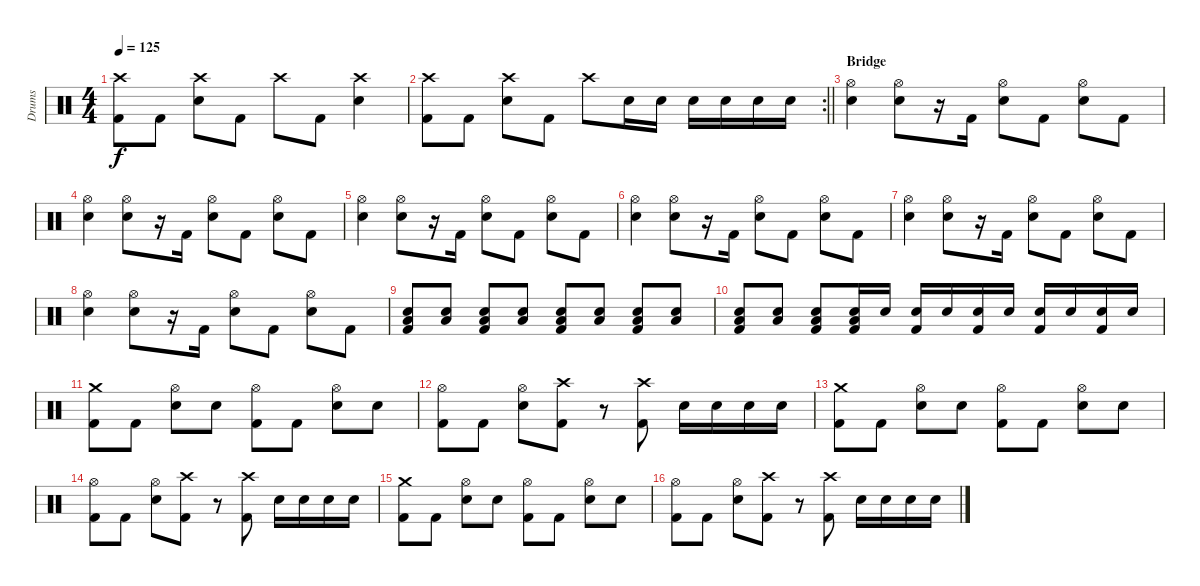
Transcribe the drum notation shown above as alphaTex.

\track ("Drums" "Drums") {instrument percussion}
\staff {score}
\articulation defaults
\ts (4 4)
\tempo 125
\clef neutral
\ks c
("Crash high (hit)" "Kick (hit) 2").8{dy f} "Kick (hit) 2".8 ("Crash high (hit)" "Electric Snare (hit)").8 "Kick (hit) 2".8 "Crash high (hit)".8 "Kick (hit) 2".8 ("Crash high (hit)" "Electric Snare (hit)").4 |
\rc 2
\barLineRight lightlight
("Crash high (hit)" "Kick (hit) 2").8 "Kick (hit) 2".8 ("Crash high (hit)" "Electric Snare (hit)").8 "Kick (hit) 2".8 "Crash high (hit)".8 "Electric Snare (hit)".16 "Electric Snare (hit)".16 "Electric Snare (hit)".16 "Electric Snare (hit)".16 "Electric Snare (hit)".16 "Electric Snare (hit)".16 |
\section ("" "Bridge")
("Hi-Hat (open)" "Electric Snare (hit)").4 ("Hi-Hat (open)" "Electric Snare (hit)").8 r.16 "Kick (hit) 2".16 ("Hi-Hat (open)" "Electric Snare (hit)").8 "Kick (hit) 2".8 ("Hi-Hat (open)" "Electric Snare (hit)").8 "Kick (hit) 2".8 |
("Hi-Hat (open)" "Electric Snare (hit)").4 ("Hi-Hat (open)" "Electric Snare (hit)").8 r.16 "Kick (hit) 2".16 ("Hi-Hat (open)" "Electric Snare (hit)").8 "Kick (hit) 2".8 ("Hi-Hat (open)" "Electric Snare (hit)").8 "Kick (hit) 2".8 |
("Hi-Hat (open)" "Electric Snare (hit)").4 ("Hi-Hat (open)" "Electric Snare (hit)").8 r.16 "Kick (hit) 2".16 ("Hi-Hat (open)" "Electric Snare (hit)").8 "Kick (hit) 2".8 ("Hi-Hat (open)" "Electric Snare (hit)").8 "Kick (hit) 2".8 |
("Hi-Hat (open)" "Electric Snare (hit)").4 ("Hi-Hat (open)" "Electric Snare (hit)").8 r.16 "Kick (hit) 2".16 ("Hi-Hat (open)" "Electric Snare (hit)").8 "Kick (hit) 2".8 ("Hi-Hat (open)" "Electric Snare (hit)").8 "Kick (hit) 2".8 |
("Hi-Hat (open)" "Electric Snare (hit)").4 ("Hi-Hat (open)" "Electric Snare (hit)").8 r.16 "Kick (hit) 2".16 ("Hi-Hat (open)" "Electric Snare (hit)").8 "Kick (hit) 2".8 ("Hi-Hat (open)" "Electric Snare (hit)").8 "Kick (hit) 2".8 |
("Hi-Hat (open)" "Electric Snare (hit)").4 ("Hi-Hat (open)" "Electric Snare (hit)").8 r.16 "Kick (hit) 2".16 ("Hi-Hat (open)" "Electric Snare (hit)").8 "Kick (hit) 2".8 ("Hi-Hat (open)" "Electric Snare (hit)").8 "Kick (hit) 2".8 |
("Low Floor Tom (hit)" "Electric Snare (hit)" "Kick (hit) 2").8 ("Low Floor Tom (hit)" "Electric Snare (hit)").8 ("Low Floor Tom (hit)" "Electric Snare (hit)" "Kick (hit) 2").8 ("Low Floor Tom (hit)" "Electric Snare (hit)").8 ("Low Floor Tom (hit)" "Electric Snare (hit)" "Kick (hit) 2").8 ("Low Floor Tom (hit)" "Electric Snare (hit)").8 ("Low Floor Tom (hit)" "Electric Snare (hit)" "Kick (hit) 2").8 ("Low Floor Tom (hit)" "Electric Snare (hit)").8 |
("Low Floor Tom (hit)" "Electric Snare (hit)" "Kick (hit) 2").8 ("Low Floor Tom (hit)" "Electric Snare (hit)").8 ("Low Floor Tom (hit)" "Electric Snare (hit)" "Kick (hit) 2").8 ("Low Floor Tom (hit)" "Electric Snare (hit)" "Kick (hit) 2").16 "Electric Snare (hit)".16 ("Electric Snare (hit)" "Kick (hit) 2").16 "Electric Snare (hit)".16 ("Electric Snare (hit)" "Kick (hit) 2").16 "Electric Snare (hit)".16 ("Electric Snare (hit)" "Kick (hit) 2").16 "Electric Snare (hit)".16 ("Electric Snare (hit)" "Kick (hit) 2").16 "Electric Snare (hit)".16 |
("Crash medium (hit)" "Kick (hit) 2").8 "Kick (hit) 2".8 ("Hi-Hat (open)" "Electric Snare (hit)").8 "Electric Snare (hit)".8 ("Hi-Hat (open)" "Kick (hit) 2").8 "Kick (hit) 2".8 ("Hi-Hat (open)" "Electric Snare (hit)").8 "Electric Snare (hit)".8 |
("Hi-Hat (open)" "Kick (hit) 2").8 "Kick (hit) 2".8 ("Hi-Hat (open)" "Electric Snare (hit)").8 ("Crash high (hit)" "Kick (hit) 2").8 r.8 ("Crash high (hit)" "Kick (hit) 2").8 "Electric Snare (hit)".16 "Electric Snare (hit)".16 "Electric Snare (hit)".16 "Electric Snare (hit)".16 |
("Crash medium (hit)" "Kick (hit) 2").8 "Kick (hit) 2".8 ("Hi-Hat (open)" "Electric Snare (hit)").8 "Electric Snare (hit)".8 ("Hi-Hat (open)" "Kick (hit) 2").8 "Kick (hit) 2".8 ("Hi-Hat (open)" "Electric Snare (hit)").8 "Electric Snare (hit)".8 |
("Hi-Hat (open)" "Kick (hit) 2").8 "Kick (hit) 2".8 ("Hi-Hat (open)" "Electric Snare (hit)").8 ("Crash high (hit)" "Kick (hit) 2").8 r.8 ("Crash high (hit)" "Kick (hit) 2").8 "Electric Snare (hit)".16 "Electric Snare (hit)".16 "Electric Snare (hit)".16 "Electric Snare (hit)".16 |
("Crash medium (hit)" "Kick (hit) 2").8 "Kick (hit) 2".8 ("Hi-Hat (open)" "Electric Snare (hit)").8 "Electric Snare (hit)".8 ("Hi-Hat (open)" "Kick (hit) 2").8 "Kick (hit) 2".8 ("Hi-Hat (open)" "Electric Snare (hit)").8 "Electric Snare (hit)".8 |
("Hi-Hat (open)" "Kick (hit) 2").8 "Kick (hit) 2".8 ("Hi-Hat (open)" "Electric Snare (hit)").8 ("Crash high (hit)" "Kick (hit) 2").8 r.8 ("Crash high (hit)" "Kick (hit) 2").8 "Electric Snare (hit)".16 "Electric Snare (hit)".16 "Electric Snare (hit)".16 "Electric Snare (hit)".16
